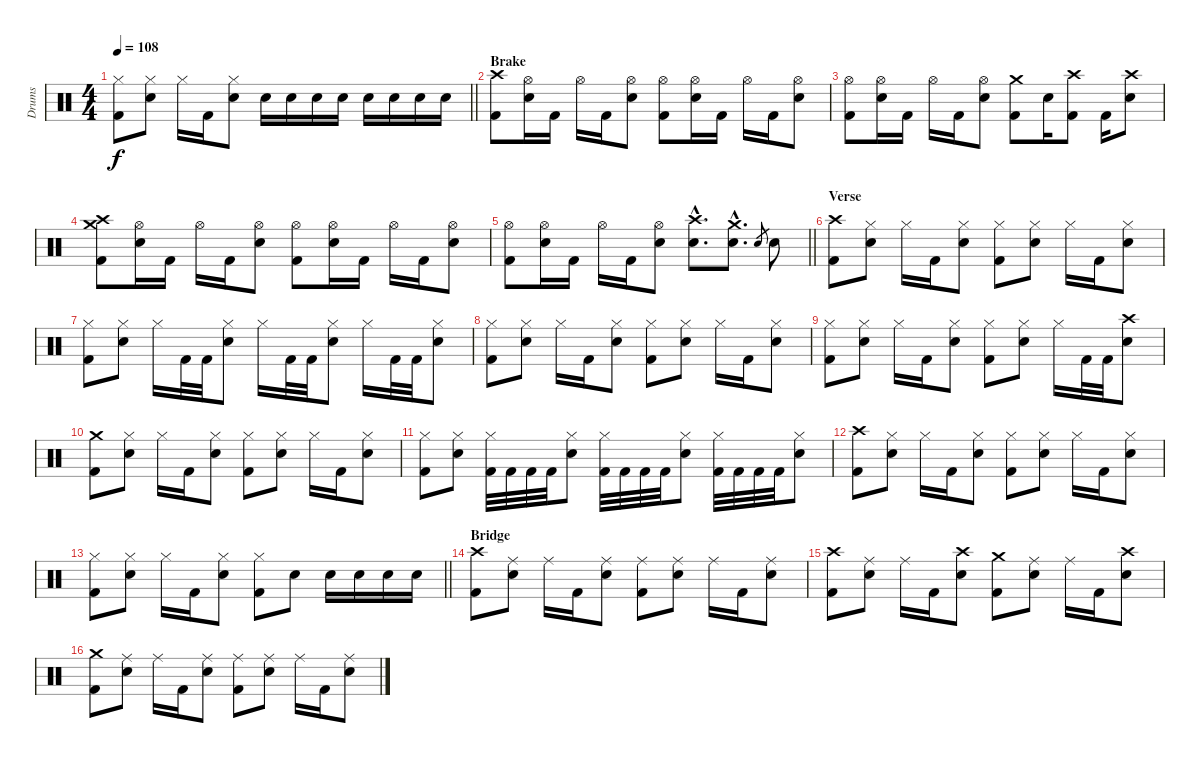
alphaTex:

\track ("Drums" "Drums") {instrument percussion}
\staff {score}
\articulation defaults
\ts (4 4)
\tempo 108
\clef neutral
\barLineRight lightlight
\ks c
("Hi-Hat (closed)" "Kick (hit) 2").8{dy f} ("Hi-Hat (closed)" "Snare (hit) 2").8 "Hi-Hat (closed)".16 "Kick (hit) 2".16 ("Hi-Hat (closed)" "Snare (hit) 2").8 "Snare (hit) 2".16 "Snare (hit) 2".16 "Snare (hit) 2".16 "Snare (hit) 2".16 "Snare (hit) 2".16 "Snare (hit) 2".16 "Snare (hit) 2".16 "Snare (hit) 2".16 |
\section ("" "Brake")
("Crash high (hit)" "Kick (hit) 2").8 ("Hi-Hat (open)" "Snare (hit) 2").16 "Kick (hit) 2".16 "Hi-Hat (open)".16 "Kick (hit) 2".16 ("Hi-Hat (open)" "Snare (hit) 2").8 ("Hi-Hat (open)" "Kick (hit) 2").8 ("Hi-Hat (open)" "Snare (hit) 2").16 "Kick (hit) 2".16 "Hi-Hat (open)".16 "Kick (hit) 2".16 ("Hi-Hat (open)" "Snare (hit) 2").8 |
("Hi-Hat (open)" "Kick (hit) 2").8 ("Hi-Hat (open)" "Snare (hit) 2").16 "Kick (hit) 2".16 "Hi-Hat (open)".16 "Kick (hit) 2".16 ("Hi-Hat (open)" "Snare (hit) 2").8 ("Crash medium (hit)" "Kick (hit) 2").8 "Snare (hit) 2".16 ("Crash high (hit)" "Kick (hit) 2").8 "Kick (hit) 2".16 ("Crash high (hit)" "Snare (hit) 2").8 |
("Crash medium (hit)" "Crash high (hit)" "Kick (hit) 2").8 ("Hi-Hat (open)" "Snare (hit) 2").16 "Kick (hit) 2".16 "Hi-Hat (open)".16 "Kick (hit) 2".16 ("Hi-Hat (open)" "Snare (hit) 2").8 ("Hi-Hat (open)" "Kick (hit) 2").8 ("Hi-Hat (open)" "Snare (hit) 2").16 "Kick (hit) 2".16 "Hi-Hat (open)".16 "Kick (hit) 2".16 ("Hi-Hat (open)" "Snare (hit) 2").8 |
\barLineRight lightlight
("Hi-Hat (open)" "Kick (hit) 2").8 ("Hi-Hat (open)" "Snare (hit) 2").16 "Kick (hit) 2".16 "Hi-Hat (open)".16 "Kick (hit) 2".16 ("Hi-Hat (open)" "Snare (hit) 2").8 ("Crash high (hit)"{hac} "Snare (hit) 2"{hac}).8{d} ("Crash medium (hit)"{hac} "Snare (hit) 2"{hac}).8{d} "Snare (hit) 2".8{gr} "Snare (hit) 2".8 |
\section ("" "Verse")
("Crash high (hit)" "Kick (hit) 2").8 ("Hi-Hat (closed)" "Snare (hit) 2").8 "Hi-Hat (closed)".16 "Kick (hit) 2".16 ("Hi-Hat (closed)" "Snare (hit) 2").8 ("Hi-Hat (closed)" "Kick (hit) 2").8 ("Hi-Hat (closed)" "Snare (hit) 2").8 "Hi-Hat (closed)".16 "Kick (hit) 2".16 ("Hi-Hat (closed)" "Snare (hit) 2").8 |
("Hi-Hat (closed)" "Kick (hit) 2").8 ("Hi-Hat (closed)" "Snare (hit) 2").8 "Hi-Hat (closed)".16 "Kick (hit) 2".32 "Kick (hit) 2".32 ("Hi-Hat (closed)" "Snare (hit) 2").8 "Hi-Hat (closed)".16 "Kick (hit) 2".32 "Kick (hit) 2".32 ("Hi-Hat (closed)" "Snare (hit) 2").8 "Hi-Hat (closed)".16 "Kick (hit) 2".32 "Kick (hit) 2".32 ("Hi-Hat (closed)" "Snare (hit) 2").8 |
("Hi-Hat (closed)" "Kick (hit) 2").8 ("Hi-Hat (closed)" "Snare (hit) 2").8 "Hi-Hat (closed)".16 "Kick (hit) 2".16 ("Hi-Hat (closed)" "Snare (hit) 2").8 ("Hi-Hat (closed)" "Kick (hit) 2").8 ("Hi-Hat (closed)" "Snare (hit) 2").8 "Hi-Hat (closed)".16 "Kick (hit) 2".16 ("Hi-Hat (closed)" "Snare (hit) 2").8 |
("Hi-Hat (closed)" "Kick (hit) 2").8 ("Hi-Hat (closed)" "Snare (hit) 2").8 "Hi-Hat (closed)".16 "Kick (hit) 2".16 ("Hi-Hat (closed)" "Snare (hit) 2").8 ("Hi-Hat (closed)" "Kick (hit) 2").8 ("Hi-Hat (closed)" "Snare (hit) 2").8 "Hi-Hat (closed)".16 "Kick (hit) 2".32 "Kick (hit) 2".32 ("Crash high (hit)" "Snare (hit) 2").8 |
("Crash medium (hit)" "Kick (hit) 2").8 ("Hi-Hat (closed)" "Snare (hit) 2").8 "Hi-Hat (closed)".16 "Kick (hit) 2".16 ("Hi-Hat (closed)" "Snare (hit) 2").8 ("Hi-Hat (closed)" "Kick (hit) 2").8 ("Hi-Hat (closed)" "Snare (hit) 2").8 "Hi-Hat (closed)".16 "Kick (hit) 2".16 ("Hi-Hat (closed)" "Snare (hit) 2").8 |
("Hi-Hat (closed)" "Kick (hit) 2").8 ("Hi-Hat (closed)" "Snare (hit) 2").8 ("Hi-Hat (closed)" "Kick (hit) 2").32 "Kick (hit) 2".32 "Kick (hit) 2".32 "Kick (hit) 2".32 ("Hi-Hat (closed)" "Snare (hit) 2").8 ("Hi-Hat (closed)" "Kick (hit) 2").32 "Kick (hit) 2".32 "Kick (hit) 2".32 "Kick (hit) 2".32 ("Hi-Hat (closed)" "Snare (hit) 2").8 ("Hi-Hat (closed)" "Kick (hit) 2").32 "Kick (hit) 2".32 "Kick (hit) 2".32 "Kick (hit) 2".32 ("Hi-Hat (closed)" "Snare (hit) 2").8 |
("Crash high (hit)" "Kick (hit) 2").8 ("Hi-Hat (closed)" "Snare (hit) 2").8 "Hi-Hat (closed)".16 "Kick (hit) 2".16 ("Hi-Hat (closed)" "Snare (hit) 2").8 ("Hi-Hat (closed)" "Kick (hit) 2").8 ("Hi-Hat (closed)" "Snare (hit) 2").8 "Hi-Hat (closed)".16 "Kick (hit) 2".16 ("Hi-Hat (closed)" "Snare (hit) 2").8 |
\barLineRight lightlight
("Hi-Hat (closed)" "Kick (hit) 2").8 ("Hi-Hat (closed)" "Snare (hit) 2").8 "Hi-Hat (closed)".16 "Kick (hit) 2".16 ("Hi-Hat (closed)" "Snare (hit) 2").8 ("Hi-Hat (closed)" "Kick (hit) 2").8 "Snare (hit) 2".8 "Snare (hit) 2".16 "Snare (hit) 2".16 "Snare (hit) 2".16 "Snare (hit) 2".16 |
\section ("" "Bridge")
("Crash high (hit)" "Kick (hit) 2").8 ("Ride (middle)" "Snare (hit) 2").8 "Ride (middle)".16 "Kick (hit) 2".16 ("Ride (middle)" "Snare (hit) 2").8 ("Ride (middle)" "Kick (hit) 2").8 ("Ride (middle)" "Snare (hit) 2").8 "Ride (middle)".16 "Kick (hit) 2".16 ("Ride (middle)" "Snare (hit) 2").8 |
("Crash high (hit)" "Kick (hit) 2").8 ("Ride (middle)" "Snare (hit) 2").8 "Ride (middle)".16 "Kick (hit) 2".16 ("Crash high (hit)" "Snare (hit) 2").8 ("Crash medium (hit)" "Kick (hit) 2").8 ("Ride (middle)" "Snare (hit) 2").8 "Ride (middle)".16 "Kick (hit) 2".16 ("Crash high (hit)" "Snare (hit) 2").8 |
("Crash medium (hit)" "Kick (hit) 2").8 ("Ride (middle)" "Snare (hit) 2").8 "Ride (middle)".16 "Kick (hit) 2".16 ("Ride (middle)" "Snare (hit) 2").8 ("Ride (middle)" "Kick (hit) 2").8 ("Ride (middle)" "Snare (hit) 2").8 "Ride (middle)".16 "Kick (hit) 2".16 ("Ride (middle)" "Snare (hit) 2").8
